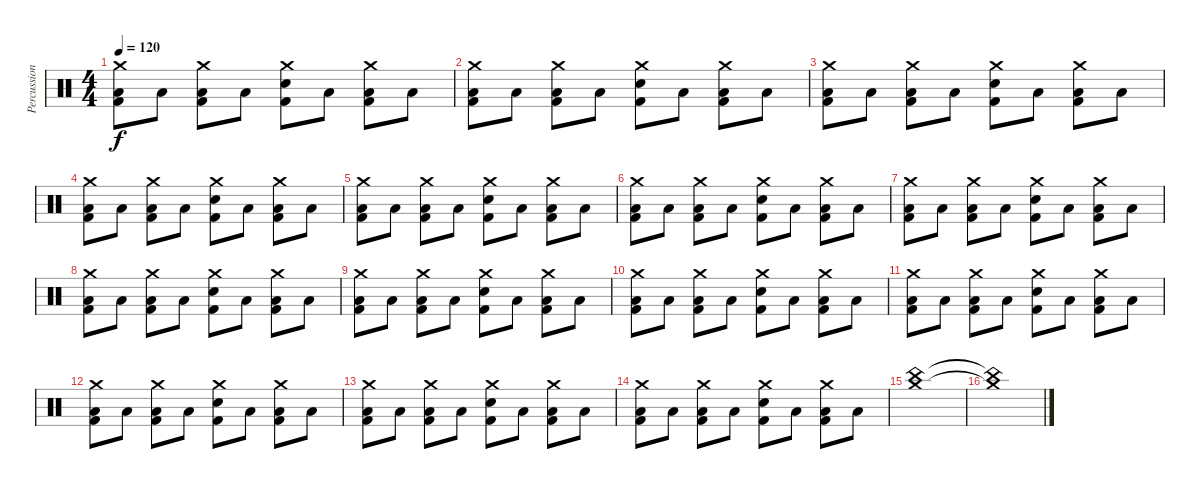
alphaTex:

\track ("Percussion" "Percussion") {instrument percussion}
\staff {score}
\articulation defaults
\ts (4 4)
\tempo 120
\clef neutral
\ks c
("Crash medium (hit)" "Kick (hit) 2" "Low Tom (hit)").8{dy f} "Low Tom (hit)".8 ("Crash medium (hit)" "Kick (hit) 2" "Low Tom (hit)").8 "Low Tom (hit)".8 ("Crash medium (hit)" "Kick (hit) 2" "Snare (hit) 2").8 "Low Tom (hit)".8 ("Crash medium (hit)" "Kick (hit) 2" "Low Tom (hit)").8 "Low Tom (hit)".8 |
("Crash medium (hit)" "Kick (hit) 2" "Low Tom (hit)").8 "Low Tom (hit)".8 ("Crash medium (hit)" "Kick (hit) 2" "Low Tom (hit)").8 "Low Tom (hit)".8 ("Crash medium (hit)" "Kick (hit) 2" "Snare (hit) 2").8 "Low Tom (hit)".8 ("Crash medium (hit)" "Kick (hit) 2" "Low Tom (hit)").8 "Low Tom (hit)".8 |
("Crash medium (hit)" "Kick (hit) 2" "Low Tom (hit)").8 "Low Tom (hit)".8 ("Crash medium (hit)" "Kick (hit) 2" "Low Tom (hit)").8 "Low Tom (hit)".8 ("Crash medium (hit)" "Kick (hit) 2" "Snare (hit) 2").8 "Low Tom (hit)".8 ("Crash medium (hit)" "Kick (hit) 2" "Low Tom (hit)").8 "Low Tom (hit)".8 |
("Crash medium (hit)" "Kick (hit) 2" "Low Tom (hit)").8 "Low Tom (hit)".8 ("Crash medium (hit)" "Kick (hit) 2" "Low Tom (hit)").8 "Low Tom (hit)".8 ("Crash medium (hit)" "Kick (hit) 2" "Snare (hit) 2").8 "Low Tom (hit)".8 ("Crash medium (hit)" "Kick (hit) 2" "Low Tom (hit)").8 "Low Tom (hit)".8 |
("Crash medium (hit)" "Kick (hit) 2" "Low Tom (hit)").8 "Low Tom (hit)".8 ("Crash medium (hit)" "Kick (hit) 2" "Low Tom (hit)").8 "Low Tom (hit)".8 ("Crash medium (hit)" "Kick (hit) 2" "Snare (hit) 2").8 "Low Tom (hit)".8 ("Crash medium (hit)" "Kick (hit) 2" "Low Tom (hit)").8 "Low Tom (hit)".8 |
("Crash medium (hit)" "Kick (hit) 2" "Low Tom (hit)").8 "Low Tom (hit)".8 ("Crash medium (hit)" "Kick (hit) 2" "Low Tom (hit)").8 "Low Tom (hit)".8 ("Crash medium (hit)" "Kick (hit) 2" "Snare (hit) 2").8 "Low Tom (hit)".8 ("Crash medium (hit)" "Kick (hit) 2" "Low Tom (hit)").8 "Low Tom (hit)".8 |
("Crash medium (hit)" "Kick (hit) 2" "Low Tom (hit)").8 "Low Tom (hit)".8 ("Crash medium (hit)" "Kick (hit) 2" "Low Tom (hit)").8 "Low Tom (hit)".8 ("Crash medium (hit)" "Kick (hit) 2" "Snare (hit) 2").8 "Low Tom (hit)".8 ("Crash medium (hit)" "Kick (hit) 2" "Low Tom (hit)").8 "Low Tom (hit)".8 |
("Crash medium (hit)" "Kick (hit) 2" "Low Tom (hit)").8 "Low Tom (hit)".8 ("Crash medium (hit)" "Kick (hit) 2" "Low Tom (hit)").8 "Low Tom (hit)".8 ("Crash medium (hit)" "Kick (hit) 2" "Snare (hit) 2").8 "Low Tom (hit)".8 ("Crash medium (hit)" "Kick (hit) 2" "Low Tom (hit)").8 "Low Tom (hit)".8 |
("Crash medium (hit)" "Kick (hit) 2" "Low Tom (hit)").8 "Low Tom (hit)".8 ("Crash medium (hit)" "Kick (hit) 2" "Low Tom (hit)").8 "Low Tom (hit)".8 ("Crash medium (hit)" "Kick (hit) 2" "Snare (hit) 2").8 "Low Tom (hit)".8 ("Crash medium (hit)" "Kick (hit) 2" "Low Tom (hit)").8 "Low Tom (hit)".8 |
("Crash medium (hit)" "Kick (hit) 2" "Low Tom (hit)").8 "Low Tom (hit)".8 ("Crash medium (hit)" "Kick (hit) 2" "Low Tom (hit)").8 "Low Tom (hit)".8 ("Crash medium (hit)" "Kick (hit) 2" "Snare (hit) 2").8 "Low Tom (hit)".8 ("Crash medium (hit)" "Kick (hit) 2" "Low Tom (hit)").8 "Low Tom (hit)".8 |
("Crash medium (hit)" "Kick (hit) 2" "Low Tom (hit)").8 "Low Tom (hit)".8 ("Crash medium (hit)" "Kick (hit) 2" "Low Tom (hit)").8 "Low Tom (hit)".8 ("Crash medium (hit)" "Kick (hit) 2" "Snare (hit) 2").8 "Low Tom (hit)".8 ("Crash medium (hit)" "Kick (hit) 2" "Low Tom (hit)").8 "Low Tom (hit)".8 |
("Crash medium (hit)" "Kick (hit) 2" "Low Tom (hit)").8 "Low Tom (hit)".8 ("Crash medium (hit)" "Kick (hit) 2" "Low Tom (hit)").8 "Low Tom (hit)".8 ("Crash medium (hit)" "Kick (hit) 2" "Snare (hit) 2").8 "Low Tom (hit)".8 ("Crash medium (hit)" "Kick (hit) 2" "Low Tom (hit)").8 "Low Tom (hit)".8 |
("Crash medium (hit)" "Kick (hit) 2" "Low Tom (hit)").8 "Low Tom (hit)".8 ("Crash medium (hit)" "Kick (hit) 2" "Low Tom (hit)").8 "Low Tom (hit)".8 ("Crash medium (hit)" "Kick (hit) 2" "Snare (hit) 2").8 "Low Tom (hit)".8 ("Crash medium (hit)" "Kick (hit) 2" "Low Tom (hit)").8 "Low Tom (hit)".8 |
("Crash medium (hit)" "Kick (hit) 2" "Low Tom (hit)").8 "Low Tom (hit)".8 ("Crash medium (hit)" "Kick (hit) 2" "Low Tom (hit)").8 "Low Tom (hit)".8 ("Crash medium (hit)" "Kick (hit) 2" "Snare (hit) 2").8 "Low Tom (hit)".8 ("Crash medium (hit)" "Kick (hit) 2" "Low Tom (hit)").8 "Low Tom (hit)".8 |
("Crash medium (hit)" "China (hit)").1 |
("Crash medium (hit)"{t} "China (hit)"{t}).1
